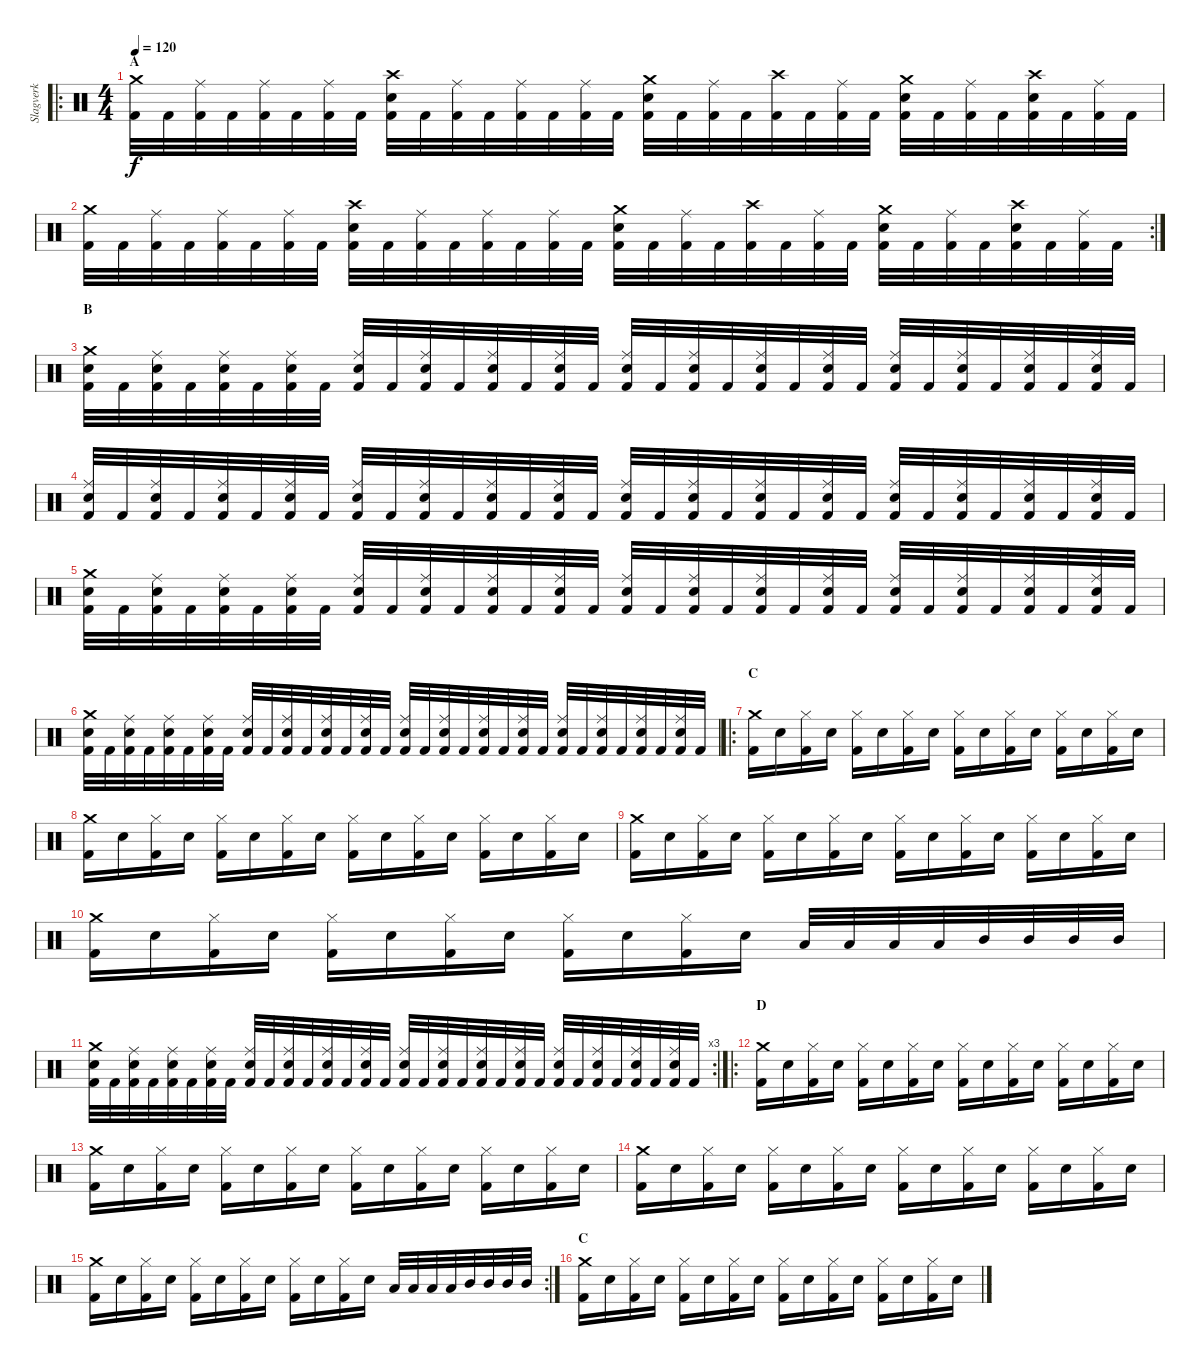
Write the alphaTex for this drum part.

\track ("Slagverk" "Slagverk") {instrument percussion}
\staff {score}
\articulation defaults
\ro
\ts (4 4)
\section ("" "A")
\tempo 120
\clef neutral
\ks c
("Crash medium (hit)" "Kick (hit) 2").32{dy f} "Kick (hit) 2".32 ("Ride (middle)" "Kick (hit) 2").32 "Kick (hit) 2".32 ("Ride (middle)" "Kick (hit) 2").32 "Kick (hit) 2".32 ("Ride (middle)" "Kick (hit) 2").32 "Kick (hit) 2".32 ("Crash high (hit)" "Electric Snare (hit)" "Kick (hit) 2").32 "Kick (hit) 2".32 ("Ride (middle)" "Kick (hit) 2").32 "Kick (hit) 2".32 ("Ride (middle)" "Kick (hit) 2").32 "Kick (hit) 2".32 ("Ride (middle)" "Kick (hit) 2").32 "Kick (hit) 2".32 ("Crash medium (hit)" "Electric Snare (hit)" "Kick (hit) 2").32 "Kick (hit) 2".32 ("Ride (middle)" "Kick (hit) 2").32 "Kick (hit) 2".32 ("Crash high (hit)" "Kick (hit) 2").32 "Kick (hit) 2".32 ("Ride (middle)" "Kick (hit) 2").32 "Kick (hit) 2".32 ("Crash medium (hit)" "Electric Snare (hit)" "Kick (hit) 2").32 "Kick (hit) 2".32 ("Ride (middle)" "Kick (hit) 2").32 "Kick (hit) 2".32 ("Crash high (hit)" "Electric Snare (hit)" "Kick (hit) 2").32 "Kick (hit) 2".32 ("Ride (middle)" "Kick (hit) 2").32 "Kick (hit) 2".32 |
\rc 2
("Crash medium (hit)" "Kick (hit) 2").32 "Kick (hit) 2".32 ("Ride (middle)" "Kick (hit) 2").32 "Kick (hit) 2".32 ("Ride (middle)" "Kick (hit) 2").32 "Kick (hit) 2".32 ("Ride (middle)" "Kick (hit) 2").32 "Kick (hit) 2".32 ("Crash high (hit)" "Electric Snare (hit)" "Kick (hit) 2").32 "Kick (hit) 2".32 ("Ride (middle)" "Kick (hit) 2").32 "Kick (hit) 2".32 ("Ride (middle)" "Kick (hit) 2").32 "Kick (hit) 2".32 ("Ride (middle)" "Kick (hit) 2").32 "Kick (hit) 2".32 ("Crash medium (hit)" "Electric Snare (hit)" "Kick (hit) 2").32 "Kick (hit) 2".32 ("Ride (middle)" "Kick (hit) 2").32 "Kick (hit) 2".32 ("Crash high (hit)" "Kick (hit) 2").32 "Kick (hit) 2".32 ("Ride (middle)" "Kick (hit) 2").32 "Kick (hit) 2".32 ("Crash medium (hit)" "Electric Snare (hit)" "Kick (hit) 2").32 "Kick (hit) 2".32 ("Ride (middle)" "Kick (hit) 2").32 "Kick (hit) 2".32 ("Crash high (hit)" "Electric Snare (hit)" "Kick (hit) 2").32 "Kick (hit) 2".32 ("Ride (middle)" "Kick (hit) 2").32 "Kick (hit) 2".32 |
\section ("" "B")
("Crash medium (hit)" "Electric Snare (hit)" "Kick (hit) 2").32 "Kick (hit) 2".32 ("Ride (middle)" "Electric Snare (hit)" "Kick (hit) 2").32 "Kick (hit) 2".32 ("Ride (middle)" "Electric Snare (hit)" "Kick (hit) 2").32 "Kick (hit) 2".32 ("Ride (middle)" "Electric Snare (hit)" "Kick (hit) 2").32 "Kick (hit) 2".32 ("Ride (middle)" "Electric Snare (hit)" "Kick (hit) 2").32 "Kick (hit) 2".32 ("Ride (middle)" "Electric Snare (hit)" "Kick (hit) 2").32 "Kick (hit) 2".32 ("Ride (middle)" "Electric Snare (hit)" "Kick (hit) 2").32 "Kick (hit) 2".32 ("Ride (middle)" "Electric Snare (hit)" "Kick (hit) 2").32 "Kick (hit) 2".32 ("Ride (middle)" "Electric Snare (hit)" "Kick (hit) 2").32 "Kick (hit) 2".32 ("Ride (middle)" "Electric Snare (hit)" "Kick (hit) 2").32 "Kick (hit) 2".32 ("Ride (middle)" "Electric Snare (hit)" "Kick (hit) 2").32 "Kick (hit) 2".32 ("Ride (middle)" "Electric Snare (hit)" "Kick (hit) 2").32 "Kick (hit) 2".32 ("Ride (middle)" "Electric Snare (hit)" "Kick (hit) 2").32 "Kick (hit) 2".32 ("Ride (middle)" "Electric Snare (hit)" "Kick (hit) 2").32 "Kick (hit) 2".32 ("Ride (middle)" "Electric Snare (hit)" "Kick (hit) 2").32 "Kick (hit) 2".32 ("Ride (middle)" "Electric Snare (hit)" "Kick (hit) 2").32 "Kick (hit) 2".32 |
("Ride (middle)" "Electric Snare (hit)" "Kick (hit) 2").32 "Kick (hit) 2".32 ("Ride (middle)" "Electric Snare (hit)" "Kick (hit) 2").32 "Kick (hit) 2".32 ("Ride (middle)" "Electric Snare (hit)" "Kick (hit) 2").32 "Kick (hit) 2".32 ("Ride (middle)" "Electric Snare (hit)" "Kick (hit) 2").32 "Kick (hit) 2".32 ("Ride (middle)" "Electric Snare (hit)" "Kick (hit) 2").32 "Kick (hit) 2".32 ("Ride (middle)" "Electric Snare (hit)" "Kick (hit) 2").32 "Kick (hit) 2".32 ("Ride (middle)" "Electric Snare (hit)" "Kick (hit) 2").32 "Kick (hit) 2".32 ("Ride (middle)" "Electric Snare (hit)" "Kick (hit) 2").32 "Kick (hit) 2".32 ("Ride (middle)" "Electric Snare (hit)" "Kick (hit) 2").32 "Kick (hit) 2".32 ("Ride (middle)" "Electric Snare (hit)" "Kick (hit) 2").32 "Kick (hit) 2".32 ("Ride (middle)" "Electric Snare (hit)" "Kick (hit) 2").32 "Kick (hit) 2".32 ("Ride (middle)" "Electric Snare (hit)" "Kick (hit) 2").32 "Kick (hit) 2".32 ("Ride (middle)" "Electric Snare (hit)" "Kick (hit) 2").32 "Kick (hit) 2".32 ("Ride (middle)" "Electric Snare (hit)" "Kick (hit) 2").32 "Kick (hit) 2".32 ("Ride (middle)" "Electric Snare (hit)" "Kick (hit) 2").32 "Kick (hit) 2".32 ("Ride (middle)" "Electric Snare (hit)" "Kick (hit) 2").32 "Kick (hit) 2".32 |
("Crash medium (hit)" "Electric Snare (hit)" "Kick (hit) 2").32 "Kick (hit) 2".32 ("Ride (middle)" "Electric Snare (hit)" "Kick (hit) 2").32 "Kick (hit) 2".32 ("Ride (middle)" "Electric Snare (hit)" "Kick (hit) 2").32 "Kick (hit) 2".32 ("Ride (middle)" "Electric Snare (hit)" "Kick (hit) 2").32 "Kick (hit) 2".32 ("Ride (middle)" "Electric Snare (hit)" "Kick (hit) 2").32 "Kick (hit) 2".32 ("Ride (middle)" "Electric Snare (hit)" "Kick (hit) 2").32 "Kick (hit) 2".32 ("Ride (middle)" "Electric Snare (hit)" "Kick (hit) 2").32 "Kick (hit) 2".32 ("Ride (middle)" "Electric Snare (hit)" "Kick (hit) 2").32 "Kick (hit) 2".32 ("Ride (middle)" "Electric Snare (hit)" "Kick (hit) 2").32 "Kick (hit) 2".32 ("Ride (middle)" "Electric Snare (hit)" "Kick (hit) 2").32 "Kick (hit) 2".32 ("Ride (middle)" "Electric Snare (hit)" "Kick (hit) 2").32 "Kick (hit) 2".32 ("Ride (middle)" "Electric Snare (hit)" "Kick (hit) 2").32 "Kick (hit) 2".32 ("Ride (middle)" "Electric Snare (hit)" "Kick (hit) 2").32 "Kick (hit) 2".32 ("Ride (middle)" "Electric Snare (hit)" "Kick (hit) 2").32 "Kick (hit) 2".32 ("Ride (middle)" "Electric Snare (hit)" "Kick (hit) 2").32 "Kick (hit) 2".32 ("Ride (middle)" "Electric Snare (hit)" "Kick (hit) 2").32 "Kick (hit) 2".32 |
("Crash medium (hit)" "Electric Snare (hit)" "Kick (hit) 2").32 "Kick (hit) 2".32 ("Ride (middle)" "Electric Snare (hit)" "Kick (hit) 2").32 "Kick (hit) 2".32 ("Ride (middle)" "Electric Snare (hit)" "Kick (hit) 2").32 "Kick (hit) 2".32 ("Ride (middle)" "Electric Snare (hit)" "Kick (hit) 2").32 "Kick (hit) 2".32 ("Ride (middle)" "Electric Snare (hit)" "Kick (hit) 2").32 "Kick (hit) 2".32 ("Ride (middle)" "Electric Snare (hit)" "Kick (hit) 2").32 "Kick (hit) 2".32 ("Ride (middle)" "Electric Snare (hit)" "Kick (hit) 2").32 "Kick (hit) 2".32 ("Ride (middle)" "Electric Snare (hit)" "Kick (hit) 2").32 "Kick (hit) 2".32 ("Ride (middle)" "Electric Snare (hit)" "Kick (hit) 2").32 "Kick (hit) 2".32 ("Ride (middle)" "Electric Snare (hit)" "Kick (hit) 2").32 "Kick (hit) 2".32 ("Ride (middle)" "Electric Snare (hit)" "Kick (hit) 2").32 "Kick (hit) 2".32 ("Ride (middle)" "Electric Snare (hit)" "Kick (hit) 2").32 "Kick (hit) 2".32 ("Ride (middle)" "Electric Snare (hit)" "Kick (hit) 2").32 "Kick (hit) 2".32 ("Ride (middle)" "Electric Snare (hit)" "Kick (hit) 2").32 "Kick (hit) 2".32 ("Ride (middle)" "Electric Snare (hit)" "Kick (hit) 2").32 "Kick (hit) 2".32 ("Ride (middle)" "Electric Snare (hit)" "Kick (hit) 2").32 "Kick (hit) 2".32 |
\ro
\section ("" "C")
("Crash medium (hit)" "Kick (hit) 2").16 "Electric Snare (hit)".16 ("Hi-Hat (closed)" "Kick (hit) 2").16 "Electric Snare (hit)".16 ("Hi-Hat (closed)" "Kick (hit) 2").16 "Electric Snare (hit)".16 ("Hi-Hat (closed)" "Kick (hit) 2").16 "Electric Snare (hit)".16 ("Hi-Hat (closed)" "Kick (hit) 2").16 "Electric Snare (hit)".16 ("Hi-Hat (closed)" "Kick (hit) 2").16 "Electric Snare (hit)".16 ("Hi-Hat (closed)" "Kick (hit) 2").16 "Electric Snare (hit)".16 ("Hi-Hat (closed)" "Kick (hit) 2").16 "Electric Snare (hit)".16 |
("Crash medium (hit)" "Kick (hit) 2").16 "Electric Snare (hit)".16 ("Hi-Hat (closed)" "Kick (hit) 2").16 "Electric Snare (hit)".16 ("Hi-Hat (closed)" "Kick (hit) 2").16 "Electric Snare (hit)".16 ("Hi-Hat (closed)" "Kick (hit) 2").16 "Electric Snare (hit)".16 ("Hi-Hat (closed)" "Kick (hit) 2").16 "Electric Snare (hit)".16 ("Hi-Hat (closed)" "Kick (hit) 2").16 "Electric Snare (hit)".16 ("Hi-Hat (closed)" "Kick (hit) 2").16 "Electric Snare (hit)".16 ("Hi-Hat (closed)" "Kick (hit) 2").16 "Electric Snare (hit)".16 |
("Crash medium (hit)" "Kick (hit) 2").16 "Electric Snare (hit)".16 ("Hi-Hat (closed)" "Kick (hit) 2").16 "Electric Snare (hit)".16 ("Hi-Hat (closed)" "Kick (hit) 2").16 "Electric Snare (hit)".16 ("Hi-Hat (closed)" "Kick (hit) 2").16 "Electric Snare (hit)".16 ("Hi-Hat (closed)" "Kick (hit) 2").16 "Electric Snare (hit)".16 ("Hi-Hat (closed)" "Kick (hit) 2").16 "Electric Snare (hit)".16 ("Hi-Hat (closed)" "Kick (hit) 2").16 "Electric Snare (hit)".16 ("Hi-Hat (closed)" "Kick (hit) 2").16 "Electric Snare (hit)".16 |
("Crash medium (hit)" "Kick (hit) 2").16 "Electric Snare (hit)".16 ("Hi-Hat (closed)" "Kick (hit) 2").16 "Electric Snare (hit)".16 ("Hi-Hat (closed)" "Kick (hit) 2").16 "Electric Snare (hit)".16 ("Hi-Hat (closed)" "Kick (hit) 2").16 "Electric Snare (hit)".16 ("Hi-Hat (closed)" "Kick (hit) 2").16 "Electric Snare (hit)".16 ("Hi-Hat (closed)" "Kick (hit) 2").16 "Electric Snare (hit)".16 "Low Tom (hit)".32 "Low Tom (hit)".32 "Low Tom (hit)".32 "Low Tom (hit)".32 "Mid Tom (hit)".32 "Mid Tom (hit)".32 "Mid Tom (hit)".32 "Mid Tom (hit)".32 |
\rc 3
("Crash medium (hit)" "Electric Snare (hit)" "Kick (hit) 2").32 "Kick (hit) 2".32 ("Ride (middle)" "Electric Snare (hit)" "Kick (hit) 2").32 "Kick (hit) 2".32 ("Ride (middle)" "Electric Snare (hit)" "Kick (hit) 2").32 "Kick (hit) 2".32 ("Ride (middle)" "Electric Snare (hit)" "Kick (hit) 2").32 "Kick (hit) 2".32 ("Ride (middle)" "Electric Snare (hit)" "Kick (hit) 2").32 "Kick (hit) 2".32 ("Ride (middle)" "Electric Snare (hit)" "Kick (hit) 2").32 "Kick (hit) 2".32 ("Ride (middle)" "Electric Snare (hit)" "Kick (hit) 2").32 "Kick (hit) 2".32 ("Ride (middle)" "Electric Snare (hit)" "Kick (hit) 2").32 "Kick (hit) 2".32 ("Ride (middle)" "Electric Snare (hit)" "Kick (hit) 2").32 "Kick (hit) 2".32 ("Ride (middle)" "Electric Snare (hit)" "Kick (hit) 2").32 "Kick (hit) 2".32 ("Ride (middle)" "Electric Snare (hit)" "Kick (hit) 2").32 "Kick (hit) 2".32 ("Ride (middle)" "Electric Snare (hit)" "Kick (hit) 2").32 "Kick (hit) 2".32 ("Ride (middle)" "Electric Snare (hit)" "Kick (hit) 2").32 "Kick (hit) 2".32 ("Ride (middle)" "Electric Snare (hit)" "Kick (hit) 2").32 "Kick (hit) 2".32 ("Ride (middle)" "Electric Snare (hit)" "Kick (hit) 2").32 "Kick (hit) 2".32 ("Ride (middle)" "Electric Snare (hit)" "Kick (hit) 2").32 "Kick (hit) 2".32 |
\ro
\section ("" "D")
("Crash medium (hit)" "Kick (hit) 2").16 "Electric Snare (hit)".16 ("Hi-Hat (closed)" "Kick (hit) 2").16 "Electric Snare (hit)".16 ("Hi-Hat (closed)" "Kick (hit) 2").16 "Electric Snare (hit)".16 ("Hi-Hat (closed)" "Kick (hit) 2").16 "Electric Snare (hit)".16 ("Hi-Hat (closed)" "Kick (hit) 2").16 "Electric Snare (hit)".16 ("Hi-Hat (closed)" "Kick (hit) 2").16 "Electric Snare (hit)".16 ("Hi-Hat (closed)" "Kick (hit) 2").16 "Electric Snare (hit)".16 ("Hi-Hat (closed)" "Kick (hit) 2").16 "Electric Snare (hit)".16 |
("Crash medium (hit)" "Kick (hit) 2").16 "Electric Snare (hit)".16 ("Hi-Hat (closed)" "Kick (hit) 2").16 "Electric Snare (hit)".16 ("Hi-Hat (closed)" "Kick (hit) 2").16 "Electric Snare (hit)".16 ("Hi-Hat (closed)" "Kick (hit) 2").16 "Electric Snare (hit)".16 ("Hi-Hat (closed)" "Kick (hit) 2").16 "Electric Snare (hit)".16 ("Hi-Hat (closed)" "Kick (hit) 2").16 "Electric Snare (hit)".16 ("Hi-Hat (closed)" "Kick (hit) 2").16 "Electric Snare (hit)".16 ("Hi-Hat (closed)" "Kick (hit) 2").16 "Electric Snare (hit)".16 |
("Crash medium (hit)" "Kick (hit) 2").16 "Electric Snare (hit)".16 ("Hi-Hat (closed)" "Kick (hit) 2").16 "Electric Snare (hit)".16 ("Hi-Hat (closed)" "Kick (hit) 2").16 "Electric Snare (hit)".16 ("Hi-Hat (closed)" "Kick (hit) 2").16 "Electric Snare (hit)".16 ("Hi-Hat (closed)" "Kick (hit) 2").16 "Electric Snare (hit)".16 ("Hi-Hat (closed)" "Kick (hit) 2").16 "Electric Snare (hit)".16 ("Hi-Hat (closed)" "Kick (hit) 2").16 "Electric Snare (hit)".16 ("Hi-Hat (closed)" "Kick (hit) 2").16 "Electric Snare (hit)".16 |
\rc 2
("Crash medium (hit)" "Kick (hit) 2").16 "Electric Snare (hit)".16 ("Hi-Hat (closed)" "Kick (hit) 2").16 "Electric Snare (hit)".16 ("Hi-Hat (closed)" "Kick (hit) 2").16 "Electric Snare (hit)".16 ("Hi-Hat (closed)" "Kick (hit) 2").16 "Electric Snare (hit)".16 ("Hi-Hat (closed)" "Kick (hit) 2").16 "Electric Snare (hit)".16 ("Hi-Hat (closed)" "Kick (hit) 2").16 "Electric Snare (hit)".16 "Low Tom (hit)".32 "Low Tom (hit)".32 "Low Tom (hit)".32 "Low Tom (hit)".32 "Mid Tom (hit)".32 "Mid Tom (hit)".32 "Mid Tom (hit)".32 "Mid Tom (hit)".32 |
\section ("" "C")
("Crash medium (hit)" "Kick (hit) 2").16 "Electric Snare (hit)".16 ("Hi-Hat (closed)" "Kick (hit) 2").16 "Electric Snare (hit)".16 ("Hi-Hat (closed)" "Kick (hit) 2").16 "Electric Snare (hit)".16 ("Hi-Hat (closed)" "Kick (hit) 2").16 "Electric Snare (hit)".16 ("Hi-Hat (closed)" "Kick (hit) 2").16 "Electric Snare (hit)".16 ("Hi-Hat (closed)" "Kick (hit) 2").16 "Electric Snare (hit)".16 ("Hi-Hat (closed)" "Kick (hit) 2").16 "Electric Snare (hit)".16 ("Hi-Hat (closed)" "Kick (hit) 2").16 "Electric Snare (hit)".16
